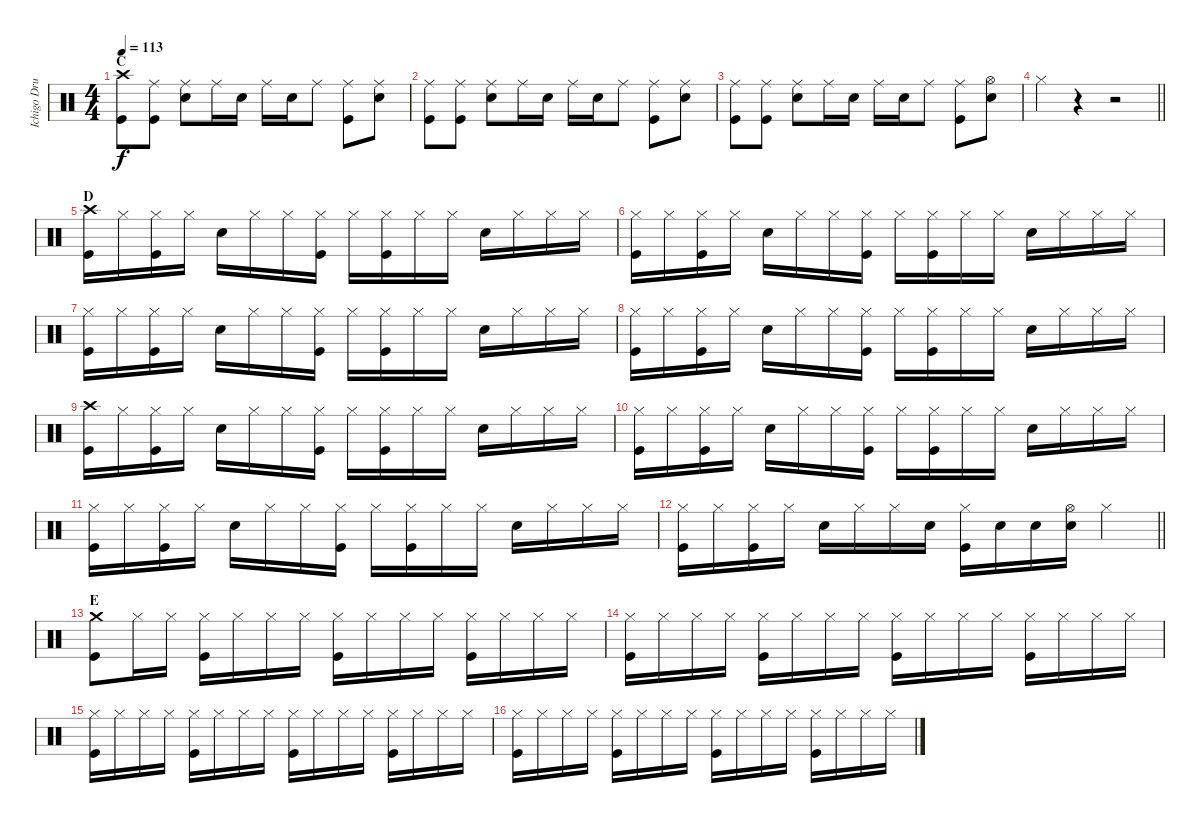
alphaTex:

\track ("Ichigo Drums" "Ichigo Dru") {instrument percussion}
\staff {score}
\articulation defaults
\ts (4 4)
\section ("" "C")
\tempo 113
\clef neutral
\ks c
("Crash high (hit)" "Kick (hit)").8{dy f} ("Ride (middle)" "Kick (hit)").8 ("Ride (middle)" "Snare (hit) 2").8 "Ride (middle)".16 "Snare (hit) 2".16 "Ride (middle)".16 "Snare (hit) 2".16 "Ride (middle)".8 ("Ride (middle)" "Kick (hit)").8 ("Ride (middle)" "Snare (hit) 2").8 |
("Ride (middle)" "Kick (hit)").8 ("Ride (middle)" "Kick (hit)").8 ("Ride (middle)" "Snare (hit) 2").8 "Ride (middle)".16 "Snare (hit) 2".16 "Ride (middle)".16 "Snare (hit) 2".16 "Ride (middle)".8 ("Ride (middle)" "Kick (hit)").8 ("Ride (middle)" "Snare (hit) 2").8 |
("Ride (middle)" "Kick (hit)").8 ("Ride (middle)" "Kick (hit)").8 ("Ride (middle)" "Snare (hit) 2").8 "Ride (middle)".16 "Snare (hit) 2".16 "Ride (middle)".16 "Snare (hit) 2".16 "Ride (middle)".8 ("Ride (middle)" "Kick (hit)").8 ("Hi-Hat (open)" "Snare (hit) 2").8 |
\barLineRight lightlight "Hi-Hat (closed)".4
r.4 r.2 |
\section ("" "D")
("Crash high (hit)" "Kick (hit)").16 "Hi-Hat (closed)".16 ("Hi-Hat (closed)" "Kick (hit)").16 "Hi-Hat (closed)".16 "Snare (hit) 2".16 "Hi-Hat (closed)".16 "Hi-Hat (closed)".16 ("Hi-Hat (closed)" "Kick (hit)").16 "Hi-Hat (closed)".16 ("Hi-Hat (closed)" "Kick (hit)").16 "Hi-Hat (closed)".16 "Hi-Hat (closed)".16 "Snare (hit) 2".16 "Hi-Hat (closed)".16 "Hi-Hat (closed)".16 "Hi-Hat (closed)".16 |
("Hi-Hat (closed)" "Kick (hit)").16 "Hi-Hat (closed)".16 ("Hi-Hat (closed)" "Kick (hit)").16 "Hi-Hat (closed)".16 "Snare (hit) 2".16 "Hi-Hat (closed)".16 "Hi-Hat (closed)".16 ("Hi-Hat (closed)" "Kick (hit)").16 "Hi-Hat (closed)".16 ("Hi-Hat (closed)" "Kick (hit)").16 "Hi-Hat (closed)".16 "Hi-Hat (closed)".16 "Snare (hit) 2".16 "Hi-Hat (closed)".16 "Hi-Hat (closed)".16 "Hi-Hat (closed)".16 |
("Hi-Hat (closed)" "Kick (hit)").16 "Hi-Hat (closed)".16 ("Hi-Hat (closed)" "Kick (hit)").16 "Hi-Hat (closed)".16 "Snare (hit) 2".16 "Hi-Hat (closed)".16 "Hi-Hat (closed)".16 ("Hi-Hat (closed)" "Kick (hit)").16 "Hi-Hat (closed)".16 ("Hi-Hat (closed)" "Kick (hit)").16 "Hi-Hat (closed)".16 "Hi-Hat (closed)".16 "Snare (hit) 2".16 "Hi-Hat (closed)".16 "Hi-Hat (closed)".16 "Hi-Hat (closed)".16 |
("Hi-Hat (closed)" "Kick (hit)").16 "Hi-Hat (closed)".16 ("Hi-Hat (closed)" "Kick (hit)").16 "Hi-Hat (closed)".16 "Snare (hit) 2".16 "Hi-Hat (closed)".16 "Hi-Hat (closed)".16 ("Hi-Hat (closed)" "Kick (hit)").16 "Hi-Hat (closed)".16 ("Hi-Hat (closed)" "Kick (hit)").16 "Hi-Hat (closed)".16 "Hi-Hat (closed)".16 "Snare (hit) 2".16 "Hi-Hat (closed)".16 "Hi-Hat (closed)".16 "Hi-Hat (closed)".16 |
("Crash high (hit)" "Kick (hit)").16 "Hi-Hat (closed)".16 ("Hi-Hat (closed)" "Kick (hit)").16 "Hi-Hat (closed)".16 "Snare (hit) 2".16 "Hi-Hat (closed)".16 "Hi-Hat (closed)".16 ("Hi-Hat (closed)" "Kick (hit)").16 "Hi-Hat (closed)".16 ("Hi-Hat (closed)" "Kick (hit)").16 "Hi-Hat (closed)".16 "Hi-Hat (closed)".16 "Snare (hit) 2".16 "Hi-Hat (closed)".16 "Hi-Hat (closed)".16 "Hi-Hat (closed)".16 |
("Hi-Hat (closed)" "Kick (hit)").16 "Hi-Hat (closed)".16 ("Hi-Hat (closed)" "Kick (hit)").16 "Hi-Hat (closed)".16 "Snare (hit) 2".16 "Hi-Hat (closed)".16 "Hi-Hat (closed)".16 ("Hi-Hat (closed)" "Kick (hit)").16 "Hi-Hat (closed)".16 ("Hi-Hat (closed)" "Kick (hit)").16 "Hi-Hat (closed)".16 "Hi-Hat (closed)".16 "Snare (hit) 2".16 "Hi-Hat (closed)".16 "Hi-Hat (closed)".16 "Hi-Hat (closed)".16 |
("Hi-Hat (closed)" "Kick (hit)").16 "Hi-Hat (closed)".16 ("Hi-Hat (closed)" "Kick (hit)").16 "Hi-Hat (closed)".16 "Snare (hit) 2".16 "Hi-Hat (closed)".16 "Hi-Hat (closed)".16 ("Hi-Hat (closed)" "Kick (hit)").16 "Hi-Hat (closed)".16 ("Hi-Hat (closed)" "Kick (hit)").16 "Hi-Hat (closed)".16 "Hi-Hat (closed)".16 "Snare (hit) 2".16 "Hi-Hat (closed)".16 "Hi-Hat (closed)".16 "Hi-Hat (closed)".16 |
\barLineRight lightlight
("Hi-Hat (closed)" "Kick (hit)").16 "Hi-Hat (closed)".16 ("Hi-Hat (closed)" "Kick (hit)").16 "Hi-Hat (closed)".16 "Snare (hit) 2".16 "Hi-Hat (closed)".16 "Hi-Hat (closed)".16 "Snare (hit) 2".16 ("Hi-Hat (closed)" "Kick (hit)").16 "Snare (hit) 2".16 "Snare (hit) 2".16 ("Hi-Hat (open)" "Snare (hit) 2").16 "Hi-Hat (closed)".4 |
\section ("" "E")
("Crash medium (hit)" "Kick (hit)").8 "Hi-Hat (closed)".16 "Hi-Hat (closed)".16 ("Hi-Hat (closed)" "Kick (hit)").16 "Hi-Hat (closed)".16 "Hi-Hat (closed)".16 "Hi-Hat (closed)".16 ("Hi-Hat (closed)" "Kick (hit)").16 "Hi-Hat (closed)".16 "Hi-Hat (closed)".16 "Hi-Hat (closed)".16 ("Hi-Hat (closed)" "Kick (hit)").16 "Hi-Hat (closed)".16 "Hi-Hat (closed)".16 "Hi-Hat (closed)".16 |
("Hi-Hat (closed)" "Kick (hit)").16 "Hi-Hat (closed)".16 "Hi-Hat (closed)".16 "Hi-Hat (closed)".16 ("Hi-Hat (closed)" "Kick (hit)").16 "Hi-Hat (closed)".16 "Hi-Hat (closed)".16 "Hi-Hat (closed)".16 ("Hi-Hat (closed)" "Kick (hit)").16 "Hi-Hat (closed)".16 "Hi-Hat (closed)".16 "Hi-Hat (closed)".16 ("Hi-Hat (closed)" "Kick (hit)").16 "Hi-Hat (closed)".16 "Hi-Hat (closed)".16 "Hi-Hat (closed)".16 |
("Hi-Hat (closed)" "Kick (hit)").16 "Hi-Hat (closed)".16 "Hi-Hat (closed)".16 "Hi-Hat (closed)".16 ("Hi-Hat (closed)" "Kick (hit)").16 "Hi-Hat (closed)".16 "Hi-Hat (closed)".16 "Hi-Hat (closed)".16 ("Hi-Hat (closed)" "Kick (hit)").16 "Hi-Hat (closed)".16 "Hi-Hat (closed)".16 "Hi-Hat (closed)".16 ("Hi-Hat (closed)" "Kick (hit)").16 "Hi-Hat (closed)".16 "Hi-Hat (closed)".16 "Hi-Hat (closed)".16 |
("Hi-Hat (closed)" "Kick (hit)").16 "Hi-Hat (closed)".16 "Hi-Hat (closed)".16 "Hi-Hat (closed)".16 ("Hi-Hat (closed)" "Kick (hit)").16 "Hi-Hat (closed)".16 "Hi-Hat (closed)".16 "Hi-Hat (closed)".16 ("Hi-Hat (closed)" "Kick (hit)").16 "Hi-Hat (closed)".16 "Hi-Hat (closed)".16 "Hi-Hat (closed)".16 ("Hi-Hat (closed)" "Kick (hit)").16 "Hi-Hat (closed)".16 "Hi-Hat (closed)".16 "Hi-Hat (closed)".16
